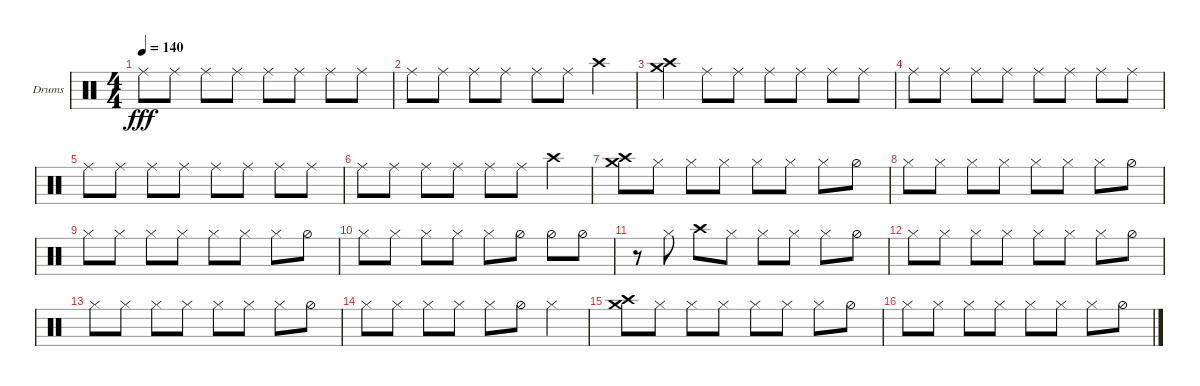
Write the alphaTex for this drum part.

\defaultSystemsLayout 4
\bracketExtendMode groupsimilarinstruments
\firstSystemTrackNameOrientation horizontal
\otherSystemsTrackNameOrientation horizontal
\track ("Helders" "Drums") {instrument percussion}
\staff {score}
\articulation defaults
\ts (4 4)
\tempo 140
\clef neutral
\ks c "Ride (middle)".8{dy fff} "Ride (middle)".8 "Ride (middle)".8 "Ride (middle)".8 "Ride (middle)".8 "Ride (middle)".8 "Ride (middle)".8 "Ride (middle)".8
|
"Ride (middle)".8 "Ride (middle)".8 "Ride (middle)".8 "Ride (middle)".8 "Ride (middle)".8 "Ride (middle)".8 "Crash high (hit)".4 |
("Crash high (hit)" "Crash medium (hit)").4 "Ride (middle)".8 "Ride (middle)".8 "Ride (middle)".8 "Ride (middle)".8 "Ride (middle)".8 "Ride (middle)".8 |
"Ride (middle)".8 "Ride (middle)".8 "Ride (middle)".8 "Ride (middle)".8 "Ride (middle)".8 "Ride (middle)".8 "Ride (middle)".8 "Ride (middle)".8 |
"Ride (middle)".8 "Ride (middle)".8 "Ride (middle)".8 "Ride (middle)".8 "Ride (middle)".8 "Ride (middle)".8 "Ride (middle)".8 "Ride (middle)".8 |
"Ride (middle)".8 "Ride (middle)".8 "Ride (middle)".8 "Ride (middle)".8 "Ride (middle)".8 "Ride (middle)".8 "Crash high (hit)".4 |
("Crash high (hit)" "Crash medium (hit)").8 "Hi-Hat (closed)".8 "Hi-Hat (closed)".8 "Hi-Hat (closed)".8 "Hi-Hat (closed)".8 "Hi-Hat (closed)".8 "Hi-Hat (closed)".8 "Hi-Hat (half)".8 |
"Hi-Hat (closed)".8 "Hi-Hat (closed)".8 "Hi-Hat (closed)".8 "Hi-Hat (closed)".8 "Hi-Hat (closed)".8 "Hi-Hat (closed)".8 "Hi-Hat (closed)".8 "Hi-Hat (half)".8 |
"Hi-Hat (closed)".8 "Hi-Hat (closed)".8 "Hi-Hat (closed)".8 "Hi-Hat (closed)".8 "Hi-Hat (closed)".8 "Hi-Hat (closed)".8 "Hi-Hat (closed)".8 "Hi-Hat (half)".8 |
"Hi-Hat (closed)".8 "Hi-Hat (closed)".8 "Hi-Hat (closed)".8 "Hi-Hat (closed)".8 "Hi-Hat (closed)".8 "Hi-Hat (half)".8 "Hi-Hat (half)".8 "Hi-Hat (half)".8 |
r.8 "Hi-Hat (closed)".8 "Crash high (hit)".8 "Hi-Hat (closed)".8 "Hi-Hat (closed)".8 "Hi-Hat (closed)".8 "Hi-Hat (closed)".8 "Hi-Hat (half)".8 |
"Hi-Hat (closed)".8 "Hi-Hat (closed)".8 "Hi-Hat (closed)".8 "Hi-Hat (closed)".8 "Hi-Hat (closed)".8 "Hi-Hat (closed)".8 "Hi-Hat (closed)".8 "Hi-Hat (half)".8 |
"Hi-Hat (closed)".8 "Hi-Hat (closed)".8 "Hi-Hat (closed)".8 "Hi-Hat (closed)".8 "Hi-Hat (closed)".8 "Hi-Hat (closed)".8 "Hi-Hat (closed)".8 "Hi-Hat (half)".8 |
"Hi-Hat (closed)".8 "Hi-Hat (closed)".8 "Hi-Hat (closed)".8 "Hi-Hat (closed)".8 "Hi-Hat (closed)".8 "Hi-Hat (half)".8 "Hi-Hat (closed)".4 |
("Crash high (hit)" "Crash medium (hit)").8 "Hi-Hat (closed)".8 "Hi-Hat (closed)".8 "Hi-Hat (closed)".8 "Hi-Hat (closed)".8 "Hi-Hat (closed)".8 "Hi-Hat (closed)".8 "Hi-Hat (half)".8 |
"Hi-Hat (closed)".8 "Hi-Hat (closed)".8 "Hi-Hat (closed)".8 "Hi-Hat (closed)".8 "Hi-Hat (closed)".8 "Hi-Hat (closed)".8 "Hi-Hat (closed)".8 "Hi-Hat (half)".8
